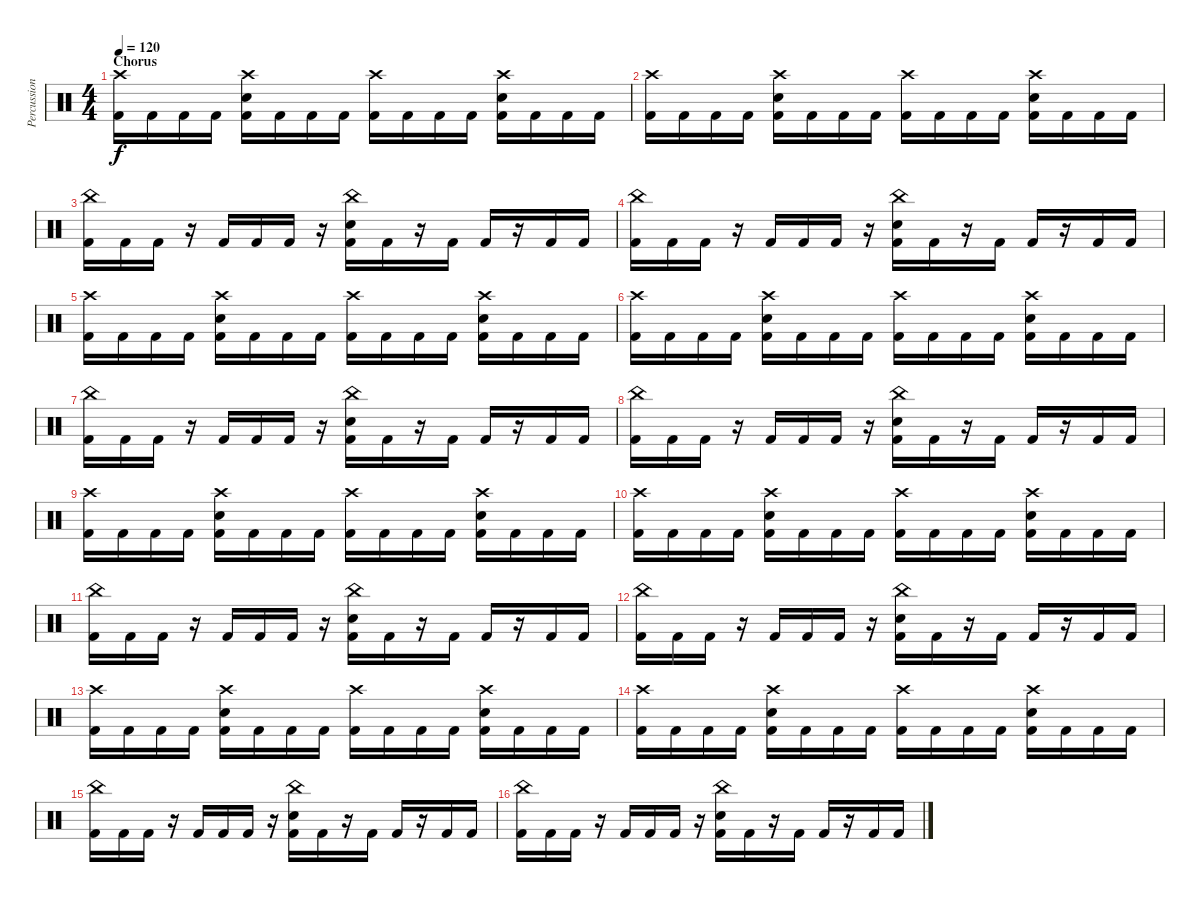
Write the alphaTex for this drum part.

\track ("Percussion" "Percussion") {instrument percussion}
\staff {score}
\articulation defaults
\ts (4 4)
\section ("" "Chorus")
\tempo 120
\clef neutral
\ks c
("Crash high (hit)" "Kick (hit) 2").16{dy f} "Kick (hit) 2".16 "Kick (hit) 2".16 "Kick (hit) 2".16 ("Snare (hit) 2" "Crash high (hit)" "Kick (hit) 2").16 "Kick (hit) 2".16 "Kick (hit) 2".16 "Kick (hit) 2".16 ("Crash high (hit)" "Kick (hit) 2").16 "Kick (hit) 2".16 "Kick (hit) 2".16 "Kick (hit) 2".16 ("Snare (hit) 2" "Crash high (hit)" "Kick (hit) 2").16 "Kick (hit) 2".16 "Kick (hit) 2".16 "Kick (hit) 2".16 |
("Crash high (hit)" "Kick (hit) 2").16 "Kick (hit) 2".16 "Kick (hit) 2".16 "Kick (hit) 2".16 ("Snare (hit) 2" "Crash high (hit)" "Kick (hit) 2").16 "Kick (hit) 2".16 "Kick (hit) 2".16 "Kick (hit) 2".16 ("Crash high (hit)" "Kick (hit) 2").16 "Kick (hit) 2".16 "Kick (hit) 2".16 "Kick (hit) 2".16 ("Snare (hit) 2" "Crash high (hit)" "Kick (hit) 2").16 "Kick (hit) 2".16 "Kick (hit) 2".16 "Kick (hit) 2".16 |
("China (hit)" "Kick (hit) 2").16 "Kick (hit) 2".16 "Kick (hit) 2".16 r.16 "Kick (hit) 2".16 "Kick (hit) 2".16 "Kick (hit) 2".16 r.16 ("Snare (hit) 2" "China (hit)" "Kick (hit) 2").16 "Kick (hit) 2".16 r.16 "Kick (hit) 2".16 "Kick (hit) 2".16 r.16 "Kick (hit) 2".16 "Kick (hit) 2".16 |
("China (hit)" "Kick (hit) 2").16 "Kick (hit) 2".16 "Kick (hit) 2".16 r.16 "Kick (hit) 2".16 "Kick (hit) 2".16 "Kick (hit) 2".16 r.16 ("Snare (hit) 2" "China (hit)" "Kick (hit) 2").16 "Kick (hit) 2".16 r.16 "Kick (hit) 2".16 "Kick (hit) 2".16 r.16 "Kick (hit) 2".16 "Kick (hit) 2".16 |
("Crash high (hit)" "Kick (hit) 2").16 "Kick (hit) 2".16 "Kick (hit) 2".16 "Kick (hit) 2".16 ("Snare (hit) 2" "Crash high (hit)" "Kick (hit) 2").16 "Kick (hit) 2".16 "Kick (hit) 2".16 "Kick (hit) 2".16 ("Crash high (hit)" "Kick (hit) 2").16 "Kick (hit) 2".16 "Kick (hit) 2".16 "Kick (hit) 2".16 ("Snare (hit) 2" "Crash high (hit)" "Kick (hit) 2").16 "Kick (hit) 2".16 "Kick (hit) 2".16 "Kick (hit) 2".16 |
("Crash high (hit)" "Kick (hit) 2").16 "Kick (hit) 2".16 "Kick (hit) 2".16 "Kick (hit) 2".16 ("Snare (hit) 2" "Crash high (hit)" "Kick (hit) 2").16 "Kick (hit) 2".16 "Kick (hit) 2".16 "Kick (hit) 2".16 ("Crash high (hit)" "Kick (hit) 2").16 "Kick (hit) 2".16 "Kick (hit) 2".16 "Kick (hit) 2".16 ("Snare (hit) 2" "Crash high (hit)" "Kick (hit) 2").16 "Kick (hit) 2".16 "Kick (hit) 2".16 "Kick (hit) 2".16 |
("China (hit)" "Kick (hit) 2").16 "Kick (hit) 2".16 "Kick (hit) 2".16 r.16 "Kick (hit) 2".16 "Kick (hit) 2".16 "Kick (hit) 2".16 r.16 ("Snare (hit) 2" "China (hit)" "Kick (hit) 2").16 "Kick (hit) 2".16 r.16 "Kick (hit) 2".16 "Kick (hit) 2".16 r.16 "Kick (hit) 2".16 "Kick (hit) 2".16 |
("China (hit)" "Kick (hit) 2").16 "Kick (hit) 2".16 "Kick (hit) 2".16 r.16 "Kick (hit) 2".16 "Kick (hit) 2".16 "Kick (hit) 2".16 r.16 ("Snare (hit) 2" "China (hit)" "Kick (hit) 2").16 "Kick (hit) 2".16 r.16 "Kick (hit) 2".16 "Kick (hit) 2".16 r.16 "Kick (hit) 2".16 "Kick (hit) 2".16 |
("Crash high (hit)" "Kick (hit) 2").16 "Kick (hit) 2".16 "Kick (hit) 2".16 "Kick (hit) 2".16 ("Snare (hit) 2" "Crash high (hit)" "Kick (hit) 2").16 "Kick (hit) 2".16 "Kick (hit) 2".16 "Kick (hit) 2".16 ("Crash high (hit)" "Kick (hit) 2").16 "Kick (hit) 2".16 "Kick (hit) 2".16 "Kick (hit) 2".16 ("Snare (hit) 2" "Crash high (hit)" "Kick (hit) 2").16 "Kick (hit) 2".16 "Kick (hit) 2".16 "Kick (hit) 2".16 |
("Crash high (hit)" "Kick (hit) 2").16 "Kick (hit) 2".16 "Kick (hit) 2".16 "Kick (hit) 2".16 ("Snare (hit) 2" "Crash high (hit)" "Kick (hit) 2").16 "Kick (hit) 2".16 "Kick (hit) 2".16 "Kick (hit) 2".16 ("Crash high (hit)" "Kick (hit) 2").16 "Kick (hit) 2".16 "Kick (hit) 2".16 "Kick (hit) 2".16 ("Snare (hit) 2" "Crash high (hit)" "Kick (hit) 2").16 "Kick (hit) 2".16 "Kick (hit) 2".16 "Kick (hit) 2".16 |
("China (hit)" "Kick (hit) 2").16 "Kick (hit) 2".16 "Kick (hit) 2".16 r.16 "Kick (hit) 2".16 "Kick (hit) 2".16 "Kick (hit) 2".16 r.16 ("Snare (hit) 2" "China (hit)" "Kick (hit) 2").16 "Kick (hit) 2".16 r.16 "Kick (hit) 2".16 "Kick (hit) 2".16 r.16 "Kick (hit) 2".16 "Kick (hit) 2".16 |
("China (hit)" "Kick (hit) 2").16 "Kick (hit) 2".16 "Kick (hit) 2".16 r.16 "Kick (hit) 2".16 "Kick (hit) 2".16 "Kick (hit) 2".16 r.16 ("Snare (hit) 2" "China (hit)" "Kick (hit) 2").16 "Kick (hit) 2".16 r.16 "Kick (hit) 2".16 "Kick (hit) 2".16 r.16 "Kick (hit) 2".16 "Kick (hit) 2".16 |
("Crash high (hit)" "Kick (hit) 2").16 "Kick (hit) 2".16 "Kick (hit) 2".16 "Kick (hit) 2".16 ("Snare (hit) 2" "Crash high (hit)" "Kick (hit) 2").16 "Kick (hit) 2".16 "Kick (hit) 2".16 "Kick (hit) 2".16 ("Crash high (hit)" "Kick (hit) 2").16 "Kick (hit) 2".16 "Kick (hit) 2".16 "Kick (hit) 2".16 ("Snare (hit) 2" "Crash high (hit)" "Kick (hit) 2").16 "Kick (hit) 2".16 "Kick (hit) 2".16 "Kick (hit) 2".16 |
("Crash high (hit)" "Kick (hit) 2").16 "Kick (hit) 2".16 "Kick (hit) 2".16 "Kick (hit) 2".16 ("Snare (hit) 2" "Crash high (hit)" "Kick (hit) 2").16 "Kick (hit) 2".16 "Kick (hit) 2".16 "Kick (hit) 2".16 ("Crash high (hit)" "Kick (hit) 2").16 "Kick (hit) 2".16 "Kick (hit) 2".16 "Kick (hit) 2".16 ("Snare (hit) 2" "Crash high (hit)" "Kick (hit) 2").16 "Kick (hit) 2".16 "Kick (hit) 2".16 "Kick (hit) 2".16 |
("China (hit)" "Kick (hit) 2").16 "Kick (hit) 2".16 "Kick (hit) 2".16 r.16 "Kick (hit) 2".16 "Kick (hit) 2".16 "Kick (hit) 2".16 r.16 ("Snare (hit) 2" "China (hit)" "Kick (hit) 2").16 "Kick (hit) 2".16 r.16 "Kick (hit) 2".16 "Kick (hit) 2".16 r.16 "Kick (hit) 2".16 "Kick (hit) 2".16 |
("China (hit)" "Kick (hit) 2").16 "Kick (hit) 2".16 "Kick (hit) 2".16 r.16 "Kick (hit) 2".16 "Kick (hit) 2".16 "Kick (hit) 2".16 r.16 ("Snare (hit) 2" "China (hit)" "Kick (hit) 2").16 "Kick (hit) 2".16 r.16 "Kick (hit) 2".16 "Kick (hit) 2".16 r.16 "Kick (hit) 2".16 "Kick (hit) 2".16
